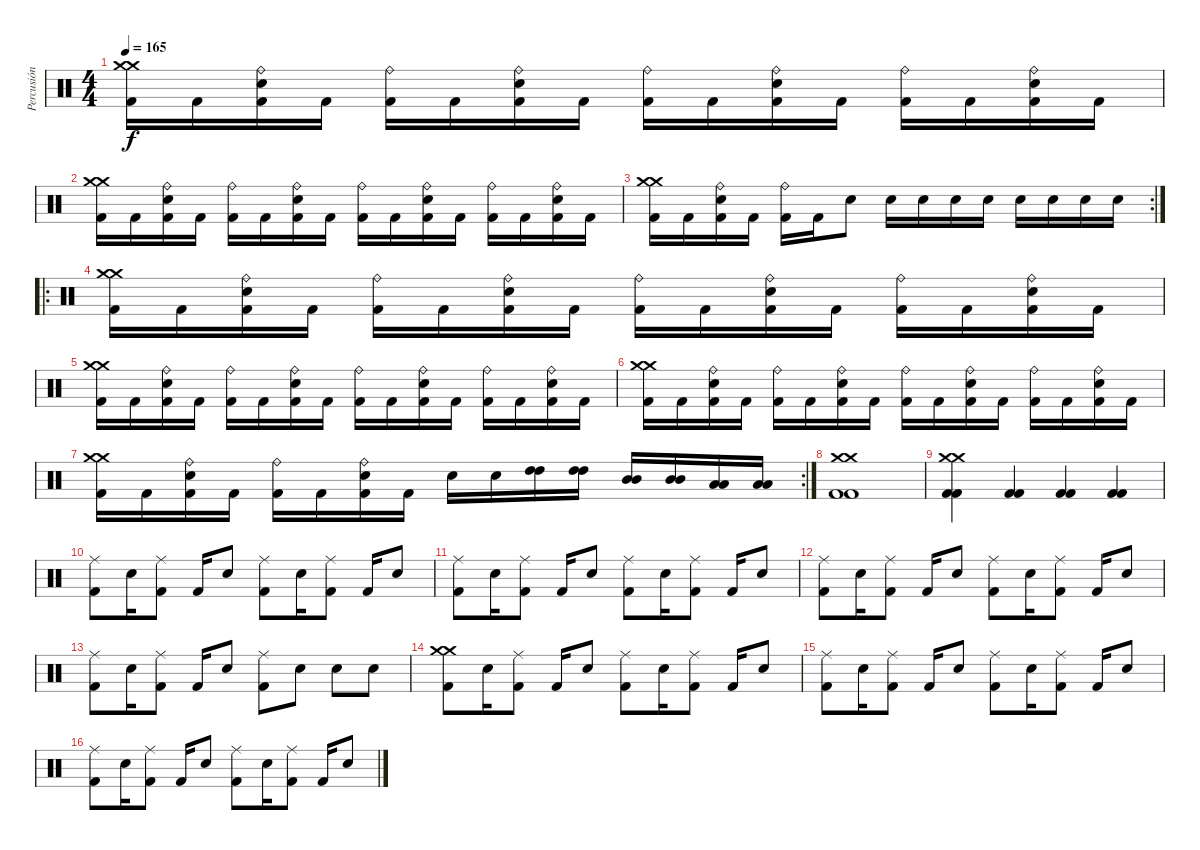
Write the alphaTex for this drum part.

\track ("Percusión" "Percusión") {instrument percussion}
\staff {score}
\articulation defaults
\ts (4 4)
\tempo 165
\clef neutral
\ks c
("Crash medium (hit)" "Crash medium (hit)" "Kick (hit) 2").16{dy f} "Kick (hit) 2".16 ("Ride (bell)" "Snare (hit) 2" "Kick (hit) 2").16 "Kick (hit) 2".16 ("Ride (bell)" "Kick (hit) 2").16 "Kick (hit) 2".16 ("Ride (bell)" "Snare (hit) 2" "Kick (hit) 2").16 "Kick (hit) 2".16 ("Ride (bell)" "Kick (hit) 2").16 "Kick (hit) 2".16 ("Ride (bell)" "Snare (hit) 2" "Kick (hit) 2").16 "Kick (hit) 2".16 ("Ride (bell)" "Kick (hit) 2").16 "Kick (hit) 2".16 ("Ride (bell)" "Snare (hit) 2" "Kick (hit) 2").16 "Kick (hit) 2".16 |
("Crash medium (hit)" "Crash medium (hit)" "Kick (hit) 2").16 "Kick (hit) 2".16 ("Ride (bell)" "Snare (hit) 2" "Kick (hit) 2").16 "Kick (hit) 2".16 ("Ride (bell)" "Kick (hit) 2").16 "Kick (hit) 2".16 ("Ride (bell)" "Snare (hit) 2" "Kick (hit) 2").16 "Kick (hit) 2".16 ("Ride (bell)" "Kick (hit) 2").16 "Kick (hit) 2".16 ("Ride (bell)" "Snare (hit) 2" "Kick (hit) 2").16 "Kick (hit) 2".16 ("Ride (bell)" "Kick (hit) 2").16 "Kick (hit) 2".16 ("Ride (bell)" "Snare (hit) 2" "Kick (hit) 2").16 "Kick (hit) 2".16 |
\rc 2
("Crash medium (hit)" "Crash medium (hit)" "Kick (hit) 2").16 "Kick (hit) 2".16 ("Ride (bell)" "Snare (hit) 2" "Kick (hit) 2").16 "Kick (hit) 2".16 ("Ride (bell)" "Kick (hit) 2").16 "Kick (hit) 2".16 "Snare (hit) 2".8 "Snare (hit) 2".16 "Snare (hit) 2".16 "Snare (hit) 2".16 "Snare (hit) 2".16 "Snare (hit) 2".16 "Snare (hit) 2".16 "Snare (hit) 2".16 "Snare (hit) 2".16 |
\ro
("Crash medium (hit)" "Crash medium (hit)" "Kick (hit) 2").16 "Kick (hit) 2".16 ("Ride (bell)" "Snare (hit) 2" "Kick (hit) 2").16 "Kick (hit) 2".16 ("Ride (bell)" "Kick (hit) 2").16 "Kick (hit) 2".16 ("Ride (bell)" "Snare (hit) 2" "Kick (hit) 2").16 "Kick (hit) 2".16 ("Ride (bell)" "Kick (hit) 2").16 "Kick (hit) 2".16 ("Ride (bell)" "Snare (hit) 2" "Kick (hit) 2").16 "Kick (hit) 2".16 ("Ride (bell)" "Kick (hit) 2").16 "Kick (hit) 2".16 ("Ride (bell)" "Snare (hit) 2" "Kick (hit) 2").16 "Kick (hit) 2".16 |
("Crash medium (hit)" "Crash medium (hit)" "Kick (hit) 2").16 "Kick (hit) 2".16 ("Ride (bell)" "Snare (hit) 2" "Kick (hit) 2").16 "Kick (hit) 2".16 ("Ride (bell)" "Kick (hit) 2").16 "Kick (hit) 2".16 ("Ride (bell)" "Snare (hit) 2" "Kick (hit) 2").16 "Kick (hit) 2".16 ("Ride (bell)" "Kick (hit) 2").16 "Kick (hit) 2".16 ("Ride (bell)" "Snare (hit) 2" "Kick (hit) 2").16 "Kick (hit) 2".16 ("Ride (bell)" "Kick (hit) 2").16 "Kick (hit) 2".16 ("Ride (bell)" "Snare (hit) 2" "Kick (hit) 2").16 "Kick (hit) 2".16 |
("Crash medium (hit)" "Crash medium (hit)" "Kick (hit) 2").16 "Kick (hit) 2".16 ("Ride (bell)" "Snare (hit) 2" "Kick (hit) 2").16 "Kick (hit) 2".16 ("Ride (bell)" "Kick (hit) 2").16 "Kick (hit) 2".16 ("Ride (bell)" "Snare (hit) 2" "Kick (hit) 2").16 "Kick (hit) 2".16 ("Ride (bell)" "Kick (hit) 2").16 "Kick (hit) 2".16 ("Ride (bell)" "Snare (hit) 2" "Kick (hit) 2").16 "Kick (hit) 2".16 ("Ride (bell)" "Kick (hit) 2").16 "Kick (hit) 2".16 ("Ride (bell)" "Snare (hit) 2" "Kick (hit) 2").16 "Kick (hit) 2".16 |
\rc 2
("Crash medium (hit)" "Crash medium (hit)" "Kick (hit) 2").16 "Kick (hit) 2".16 ("Ride (bell)" "Snare (hit) 2" "Kick (hit) 2").16 "Kick (hit) 2".16 ("Ride (bell)" "Kick (hit) 2").16 "Kick (hit) 2".16 ("Ride (bell)" "Snare (hit) 2" "Kick (hit) 2").16 "Kick (hit) 2".16 "Snare (hit) 2".16 "Snare (hit) 2".16 ("High Tom (hit)" "High Tom (hit)").16 ("High Tom (hit)" "High Tom (hit)").16 ("Mid Tom (hit)" "Mid Tom (hit)").16 ("Mid Tom (hit)" "Mid Tom (hit)").16 ("Low Tom (hit)" "Low Tom (hit)").16 ("Low Tom (hit)" "Low Tom (hit)").16 |
("Crash medium (hit)" "Crash medium (hit)" "Kick (hit) 2" "Kick (hit) 2").1 |
("Crash medium (hit)" "Crash medium (hit)" "Kick (hit) 2" "Kick (hit) 2").4 ("Kick (hit) 2" "Kick (hit) 2").4 ("Kick (hit) 2" "Kick (hit) 2").4 ("Kick (hit) 2" "Kick (hit) 2").4 |
("Ride (middle)" "Kick (hit) 2").8 "Snare (hit) 2".16 ("Ride (middle)" "Kick (hit) 2").8 "Kick (hit) 2".16 "Snare (hit) 2".8 ("Ride (middle)" "Kick (hit) 2").8 "Snare (hit) 2".16 ("Ride (middle)" "Kick (hit) 2").8 "Kick (hit) 2".16 "Snare (hit) 2".8 |
("Ride (middle)" "Kick (hit) 2").8 "Snare (hit) 2".16 ("Ride (middle)" "Kick (hit) 2").8 "Kick (hit) 2".16 "Snare (hit) 2".8 ("Ride (middle)" "Kick (hit) 2").8 "Snare (hit) 2".16 ("Ride (middle)" "Kick (hit) 2").8 "Kick (hit) 2".16 "Snare (hit) 2".8 |
("Ride (middle)" "Kick (hit) 2").8 "Snare (hit) 2".16 ("Ride (middle)" "Kick (hit) 2").8 "Kick (hit) 2".16 "Snare (hit) 2".8 ("Ride (middle)" "Kick (hit) 2").8 "Snare (hit) 2".16 ("Ride (middle)" "Kick (hit) 2").8 "Kick (hit) 2".16 "Snare (hit) 2".8 |
("Ride (middle)" "Kick (hit) 2").8 "Snare (hit) 2".16 ("Ride (middle)" "Kick (hit) 2").8 "Kick (hit) 2".16 "Snare (hit) 2".8 ("Ride (middle)" "Kick (hit) 2").8 "Snare (hit) 2".8 "Snare (hit) 2".8 "Snare (hit) 2".8 |
("Crash medium (hit)" "Crash medium (hit)" "Kick (hit) 2").8 "Snare (hit) 2".16 ("Ride (middle)" "Kick (hit) 2").8 "Kick (hit) 2".16 "Snare (hit) 2".8 ("Ride (middle)" "Kick (hit) 2").8 "Snare (hit) 2".16 ("Ride (middle)" "Kick (hit) 2").8 "Kick (hit) 2".16 "Snare (hit) 2".8 |
("Ride (middle)" "Kick (hit) 2").8 "Snare (hit) 2".16 ("Ride (middle)" "Kick (hit) 2").8 "Kick (hit) 2".16 "Snare (hit) 2".8 ("Ride (middle)" "Kick (hit) 2").8 "Snare (hit) 2".16 ("Ride (middle)" "Kick (hit) 2").8 "Kick (hit) 2".16 "Snare (hit) 2".8 |
("Ride (middle)" "Kick (hit) 2").8 "Snare (hit) 2".16 ("Ride (middle)" "Kick (hit) 2").8 "Kick (hit) 2".16 "Snare (hit) 2".8 ("Ride (middle)" "Kick (hit) 2").8 "Snare (hit) 2".16 ("Ride (middle)" "Kick (hit) 2").8 "Kick (hit) 2".16 "Snare (hit) 2".8
